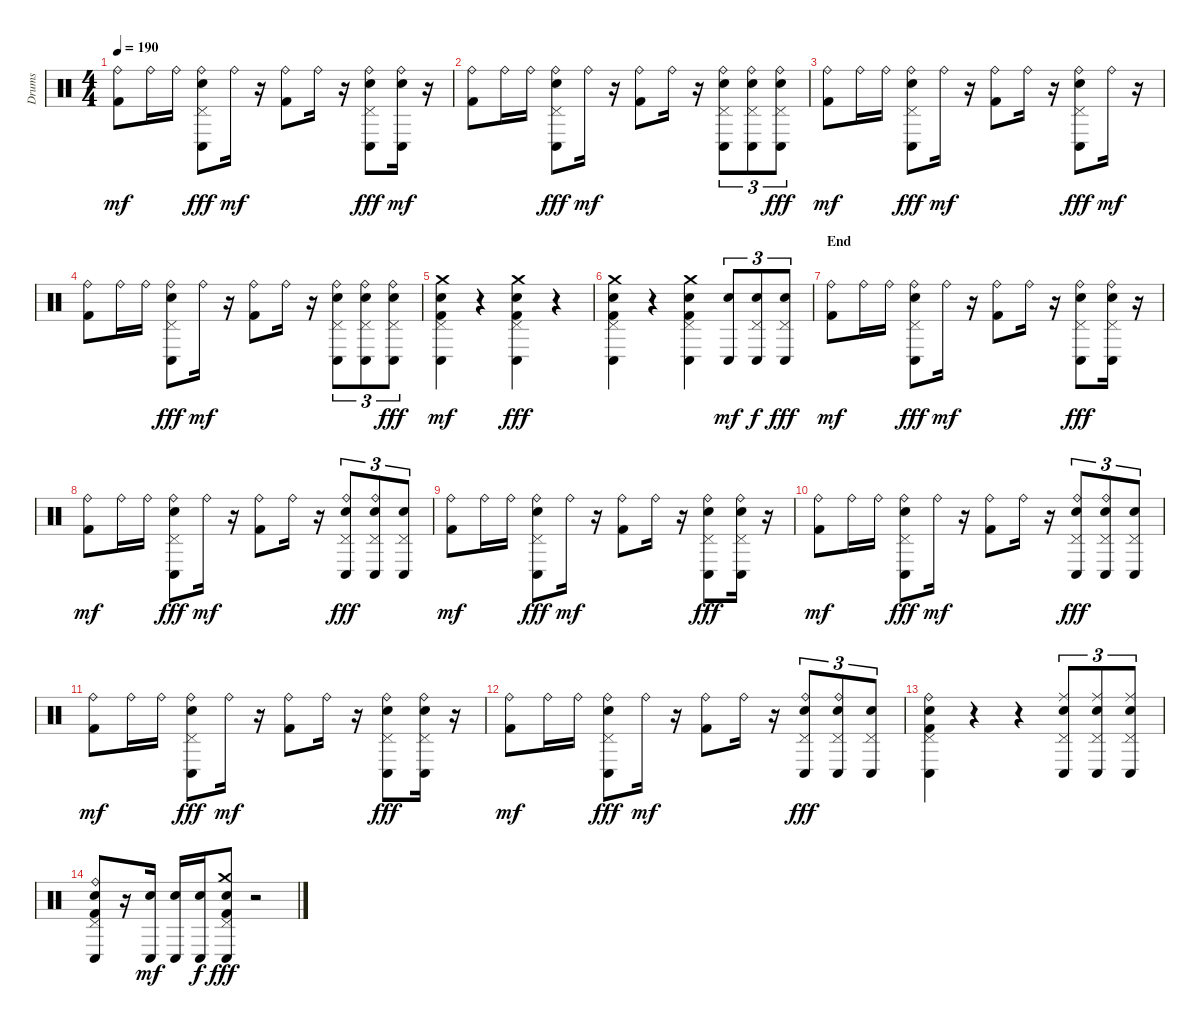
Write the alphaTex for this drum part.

\track ("Drums" "Drums") {instrument percussion}
\staff {score}
\articulation defaults
\ts (4 4)
\tempo 190
\clef neutral
\ks c
("Ride (bell)" "Kick (hit) 2").8{dy mf} "Ride (bell)".16 "Ride (bell)".16 ("Ride (bell)" "Pedal Hi-Hat (hit)" "Conga low (hit)" "Electric Snare (hit)").8{dy fff} "Ride (bell)".16{dy mf} r.16 ("Ride (bell)" "Kick (hit) 2").8 "Ride (bell)".16 r.16 ("Ride (bell)" "Pedal Hi-Hat (hit)" "Conga low (hit)" "Electric Snare (hit)").8{dy fff} ("Ride (bell)" "Conga low (hit)" "Electric Snare (hit)").16{dy mf} r.16 |
("Ride (bell)" "Kick (hit) 2").8 "Ride (bell)".16 "Ride (bell)".16 ("Ride (bell)" "Pedal Hi-Hat (hit)" "Conga low (hit)" "Electric Snare (hit)").8{dy fff} "Ride (bell)".16{dy mf} r.16 ("Ride (bell)" "Kick (hit) 2").8 "Ride (bell)".16 r.16 ("Ride (bell)" "Pedal Hi-Hat (hit)" "Conga low (hit)" "Electric Snare (hit)").8{tu (3 2)} ("Ride (bell)" "Pedal Hi-Hat (hit)" "Conga low (hit)" "Electric Snare (hit)").8{tu (3 2)} ("Ride (bell)" "Pedal Hi-Hat (hit)" "Conga low (hit)" "Electric Snare (hit)").8{tu (3 2) dy fff} |
("Ride (bell)" "Kick (hit) 2").8{dy mf} "Ride (bell)".16 "Ride (bell)".16 ("Ride (bell)" "Pedal Hi-Hat (hit)" "Conga low (hit)" "Electric Snare (hit)").8{dy fff} "Ride (bell)".16{dy mf} r.16 ("Ride (bell)" "Kick (hit) 2").8 "Ride (bell)".16 r.16 ("Ride (bell)" "Pedal Hi-Hat (hit)" "Conga low (hit)" "Electric Snare (hit)").8{dy fff} "Ride (bell)".16{dy mf} r.16 |
("Ride (bell)" "Kick (hit) 2").8 "Ride (bell)".16 "Ride (bell)".16 ("Ride (bell)" "Pedal Hi-Hat (hit)" "Conga low (hit)" "Electric Snare (hit)").8{dy fff} "Ride (bell)".16{dy mf} r.16 ("Ride (bell)" "Kick (hit) 2").8 "Ride (bell)".16 r.16 ("Ride (bell)" "Pedal Hi-Hat (hit)" "Conga low (hit)" "Electric Snare (hit)").8{tu (3 2)} ("Ride (bell)" "Pedal Hi-Hat (hit)" "Conga low (hit)" "Electric Snare (hit)").8{tu (3 2)} ("Ride (bell)" "Pedal Hi-Hat (hit)" "Conga low (hit)" "Electric Snare (hit)").8{tu (3 2) dy fff} |
("Crash medium (hit)" "Pedal Hi-Hat (hit)" "Conga low (hit)" "Electric Snare (hit)" "Kick (hit) 2").4{dy mf} r.4 ("Crash medium (hit)" "Pedal Hi-Hat (hit)" "Conga low (hit)" "Electric Snare (hit)" "Kick (hit) 2").4{dy fff} r.4 |
("Crash medium (hit)" "Pedal Hi-Hat (hit)" "Conga low (hit)" "Electric Snare (hit)" "Kick (hit) 2").4 r.4 ("Crash medium (hit)" "Pedal Hi-Hat (hit)" "Conga low (hit)" "Electric Snare (hit)" "Kick (hit) 2").4 ("Conga low (hit)" "Electric Snare (hit)").8{tu (3 2) dy mf} ("Pedal Hi-Hat (hit)" "Conga low (hit)" "Electric Snare (hit)").8{tu (3 2) dy f} ("Pedal Hi-Hat (hit)" "Conga low (hit)" "Electric Snare (hit)").8{tu (3 2) dy fff} |
\section ("" "End")
("Ride (bell)" "Kick (hit) 2").8{dy mf} "Ride (bell)".16 "Ride (bell)".16 ("Ride (bell)" "Pedal Hi-Hat (hit)" "Conga low (hit)" "Electric Snare (hit)").8{dy fff} "Ride (bell)".16{dy mf} r.16 ("Ride (bell)" "Kick (hit) 2").8 "Ride (bell)".16 r.16 ("Ride (bell)" "Pedal Hi-Hat (hit)" "Conga low (hit)" "Electric Snare (hit)").8{dy fff} ("Ride (bell)" "Pedal Hi-Hat (hit)" "Conga low (hit)" "Electric Snare (hit)").16 r.16 |
("Ride (bell)" "Kick (hit) 2").8{dy mf} "Ride (bell)".16 "Ride (bell)".16 ("Ride (bell)" "Pedal Hi-Hat (hit)" "Conga low (hit)" "Electric Snare (hit)").8{dy fff} "Ride (bell)".16{dy mf} r.16 ("Ride (bell)" "Kick (hit) 2").8 "Ride (bell)".16 r.16 ("Ride (bell)" "Pedal Hi-Hat (hit)" "Conga low (hit)" "Electric Snare (hit)").8{tu (3 2) dy fff} ("Ride (bell)" "Pedal Hi-Hat (hit)" "Conga low (hit)" "Electric Snare (hit)").8{tu (3 2)} ("Pedal Hi-Hat (hit)" "Conga low (hit)" "Electric Snare (hit)").8{tu (3 2)} |
("Ride (bell)" "Kick (hit) 2").8{dy mf} "Ride (bell)".16 "Ride (bell)".16 ("Ride (bell)" "Pedal Hi-Hat (hit)" "Conga low (hit)" "Electric Snare (hit)").8{dy fff} "Ride (bell)".16{dy mf} r.16 ("Ride (bell)" "Kick (hit) 2").8 "Ride (bell)".16 r.16 ("Ride (bell)" "Pedal Hi-Hat (hit)" "Conga low (hit)" "Electric Snare (hit)").8{dy fff} ("Ride (bell)" "Pedal Hi-Hat (hit)" "Conga low (hit)" "Electric Snare (hit)").16 r.16 |
("Ride (bell)" "Kick (hit) 2").8{dy mf} "Ride (bell)".16 "Ride (bell)".16 ("Ride (bell)" "Pedal Hi-Hat (hit)" "Conga low (hit)" "Electric Snare (hit)").8{dy fff} "Ride (bell)".16{dy mf} r.16 ("Ride (bell)" "Kick (hit) 2").8 "Ride (bell)".16 r.16 ("Ride (bell)" "Pedal Hi-Hat (hit)" "Conga low (hit)" "Electric Snare (hit)").8{tu (3 2) dy fff} ("Ride (bell)" "Pedal Hi-Hat (hit)" "Conga low (hit)" "Electric Snare (hit)").8{tu (3 2)} ("Pedal Hi-Hat (hit)" "Conga low (hit)" "Electric Snare (hit)").8{tu (3 2)} |
("Ride (bell)" "Kick (hit) 2").8{dy mf} "Ride (bell)".16 "Ride (bell)".16 ("Ride (bell)" "Pedal Hi-Hat (hit)" "Conga low (hit)" "Electric Snare (hit)").8{dy fff} "Ride (bell)".16{dy mf} r.16 ("Ride (bell)" "Kick (hit) 2").8 "Ride (bell)".16 r.16 ("Ride (bell)" "Pedal Hi-Hat (hit)" "Conga low (hit)" "Electric Snare (hit)").8{dy fff} ("Ride (bell)" "Pedal Hi-Hat (hit)" "Conga low (hit)" "Electric Snare (hit)").16 r.16 |
("Ride (bell)" "Kick (hit) 2").8{dy mf} "Ride (bell)".16 "Ride (bell)".16 ("Ride (bell)" "Pedal Hi-Hat (hit)" "Conga low (hit)" "Electric Snare (hit)").8{dy fff} "Ride (bell)".16{dy mf} r.16 ("Ride (bell)" "Kick (hit) 2").8 "Ride (bell)".16 r.16 ("Ride (bell)" "Pedal Hi-Hat (hit)" "Conga low (hit)" "Electric Snare (hit)").8{tu (3 2) dy fff} ("Ride (bell)" "Pedal Hi-Hat (hit)" "Conga low (hit)" "Electric Snare (hit)").8{tu (3 2)} ("Pedal Hi-Hat (hit)" "Conga low (hit)" "Electric Snare (hit)").8{tu (3 2)} |
("Ride (bell)" "Pedal Hi-Hat (hit)" "Conga low (hit)" "Electric Snare (hit)" "Kick (hit) 2").4 r.4 r.4 ("Ride (middle)" "Pedal Hi-Hat (hit)" "Conga low (hit)" "Electric Snare (hit)").8{tu (3 2)} ("Ride (middle)" "Pedal Hi-Hat (hit)" "Conga low (hit)" "Electric Snare (hit)").8{tu (3 2)} ("Ride (middle)" "Pedal Hi-Hat (hit)" "Conga low (hit)" "Electric Snare (hit)").8{tu (3 2)} |
("Ride (bell)" "Pedal Hi-Hat (hit)" "Conga low (hit)" "Electric Snare (hit)" "Kick (hit) 2").8 r.16 ("Conga low (hit)" "Electric Snare (hit)").16{dy mf} ("Conga low (hit)" "Electric Snare (hit)").16 ("Conga low (hit)" "Electric Snare (hit)").16{dy f} ("Crash medium (hit)" "Pedal Hi-Hat (hit)" "Conga low (hit)" "Electric Snare (hit)" "Kick (hit) 2").8{dy fff} r.2
